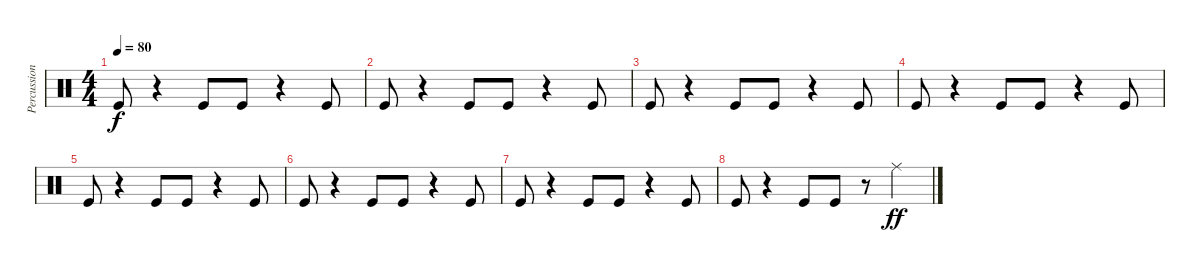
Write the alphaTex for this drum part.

\track ("Percussion" "Percussion") {instrument percussion}
\staff {score}
\articulation defaults
\ts (4 4)
\tempo 80
\clef neutral
\ks c "Kick (hit)".8{dy f}
r.4 "Kick (hit)".8{beam merge} "Kick (hit)".8 r.4 "Kick (hit)".8 |
"Kick (hit)".8 r.4 "Kick (hit)".8{beam merge} "Kick (hit)".8 r.4 "Kick (hit)".8 |
"Kick (hit)".8 r.4 "Kick (hit)".8{beam merge} "Kick (hit)".8 r.4 "Kick (hit)".8 |
"Kick (hit)".8 r.4 "Kick (hit)".8{beam merge} "Kick (hit)".8 r.4 "Kick (hit)".8 |
"Kick (hit)".8 r.4 "Kick (hit)".8{beam merge} "Kick (hit)".8 r.4 "Kick (hit)".8 |
"Kick (hit)".8 r.4 "Kick (hit)".8{beam merge} "Kick (hit)".8 r.4 "Kick (hit)".8 |
"Kick (hit)".8 r.4 "Kick (hit)".8{beam merge} "Kick (hit)".8 r.4 "Kick (hit)".8 |
"Kick (hit)".8 r.4 "Kick (hit)".8{beam merge} "Kick (hit)".8 r.8 "Ride (middle)".4{dy ff}
